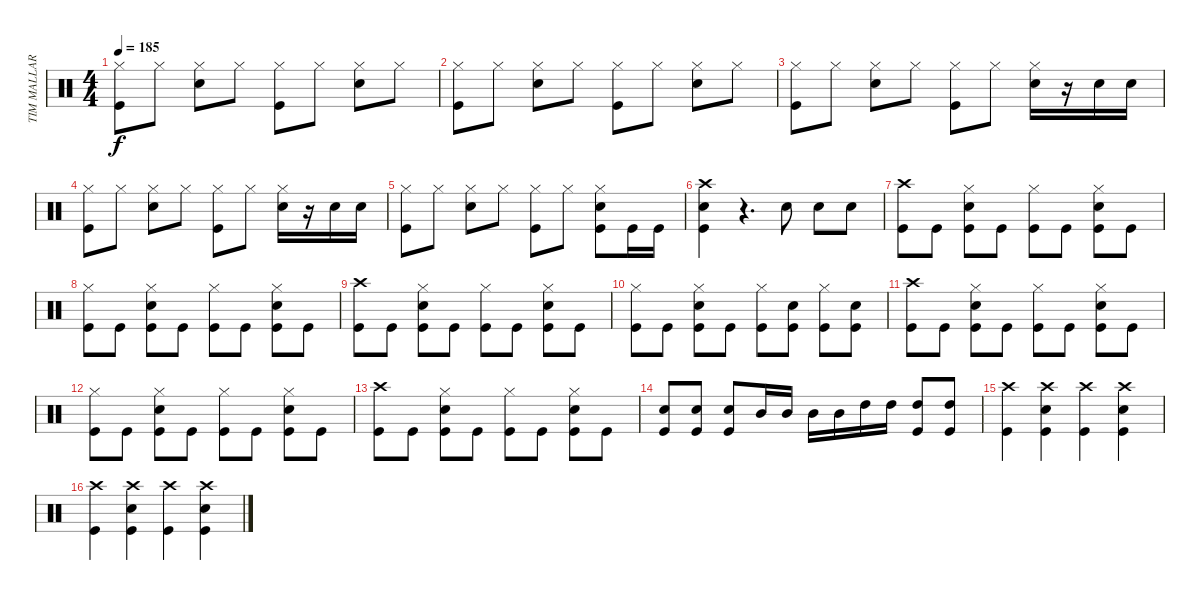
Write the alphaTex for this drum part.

\track ("TIM MALLARE - drums" "TIM MALLAR") {instrument percussion}
\staff {score}
\articulation defaults
\ts (4 4)
\tempo 185
\clef neutral
\ks c
("Hi-Hat (closed)" "Kick (hit)").8{dy f} "Hi-Hat (closed)".8 ("Hi-Hat (closed)" "Electric Snare (hit)").8 "Hi-Hat (closed)".8 ("Hi-Hat (closed)" "Kick (hit)").8 "Hi-Hat (closed)".8 ("Hi-Hat (closed)" "Electric Snare (hit)").8 "Hi-Hat (closed)".8 |
("Hi-Hat (closed)" "Kick (hit)").8 "Hi-Hat (closed)".8 ("Hi-Hat (closed)" "Electric Snare (hit)").8 "Hi-Hat (closed)".8 ("Hi-Hat (closed)" "Kick (hit)").8 "Hi-Hat (closed)".8 ("Hi-Hat (closed)" "Electric Snare (hit)").8 "Hi-Hat (closed)".8 |
("Hi-Hat (closed)" "Kick (hit)").8 "Hi-Hat (closed)".8 ("Hi-Hat (closed)" "Electric Snare (hit)").8 "Hi-Hat (closed)".8 ("Hi-Hat (closed)" "Kick (hit)").8 "Hi-Hat (closed)".8 ("Hi-Hat (closed)" "Electric Snare (hit)").16 r.16 "Electric Snare (hit)".16 "Electric Snare (hit)".16 |
("Hi-Hat (closed)" "Kick (hit)").8 "Hi-Hat (closed)".8 ("Hi-Hat (closed)" "Electric Snare (hit)").8 "Hi-Hat (closed)".8 ("Hi-Hat (closed)" "Kick (hit)").8 "Hi-Hat (closed)".8 ("Hi-Hat (closed)" "Electric Snare (hit)").16 r.16 "Electric Snare (hit)".16 "Electric Snare (hit)".16 |
("Hi-Hat (closed)" "Kick (hit)").8 "Hi-Hat (closed)".8 ("Hi-Hat (closed)" "Electric Snare (hit)").8 "Hi-Hat (closed)".8 ("Hi-Hat (closed)" "Kick (hit)").8 "Hi-Hat (closed)".8 ("Hi-Hat (closed)" "Electric Snare (hit)" "Kick (hit)").8 "Kick (hit)".16 "Kick (hit)".16 |
("Electric Snare (hit)" "Crash high (hit)" "Kick (hit)").4 r.4{d} "Electric Snare (hit)".8 "Electric Snare (hit)".8 "Electric Snare (hit)".8 |
("Crash high (hit)" "Kick (hit)").8 "Kick (hit)".8 ("Hi-Hat (closed)" "Electric Snare (hit)" "Kick (hit)").8 "Kick (hit)".8 ("Hi-Hat (closed)" "Kick (hit)").8 "Kick (hit)".8 ("Hi-Hat (closed)" "Electric Snare (hit)" "Kick (hit)").8 "Kick (hit)".8 |
("Hi-Hat (closed)" "Kick (hit)").8 "Kick (hit)".8 ("Hi-Hat (closed)" "Electric Snare (hit)" "Kick (hit)").8 "Kick (hit)".8 ("Hi-Hat (closed)" "Kick (hit)").8 "Kick (hit)".8 ("Hi-Hat (closed)" "Electric Snare (hit)" "Kick (hit)").8 "Kick (hit)".8 |
("Crash high (hit)" "Kick (hit)").8 "Kick (hit)".8 ("Hi-Hat (closed)" "Electric Snare (hit)" "Kick (hit)").8 "Kick (hit)".8 ("Hi-Hat (closed)" "Kick (hit)").8 "Kick (hit)".8 ("Hi-Hat (closed)" "Electric Snare (hit)" "Kick (hit)").8 "Kick (hit)".8 |
("Hi-Hat (closed)" "Kick (hit)").8 "Kick (hit)".8 ("Hi-Hat (closed)" "Electric Snare (hit)" "Kick (hit)").8 "Kick (hit)".8 ("Hi-Hat (closed)" "Kick (hit)").8 ("Electric Snare (hit)" "Kick (hit)").8 ("Hi-Hat (closed)" "Kick (hit)").8 ("Electric Snare (hit)" "Kick (hit)").8 |
("Crash high (hit)" "Kick (hit)").8 "Kick (hit)".8 ("Hi-Hat (closed)" "Electric Snare (hit)" "Kick (hit)").8 "Kick (hit)".8 ("Hi-Hat (closed)" "Kick (hit)").8 "Kick (hit)".8 ("Hi-Hat (closed)" "Electric Snare (hit)" "Kick (hit)").8 "Kick (hit)".8 |
("Hi-Hat (closed)" "Kick (hit)").8 "Kick (hit)".8 ("Hi-Hat (closed)" "Electric Snare (hit)" "Kick (hit)").8 "Kick (hit)".8 ("Hi-Hat (closed)" "Kick (hit)").8 "Kick (hit)".8 ("Hi-Hat (closed)" "Electric Snare (hit)" "Kick (hit)").8 "Kick (hit)".8 |
("Crash high (hit)" "Kick (hit)").8 "Kick (hit)".8 ("Hi-Hat (closed)" "Electric Snare (hit)" "Kick (hit)").8 "Kick (hit)".8 ("Hi-Hat (closed)" "Kick (hit)").8 "Kick (hit)".8 ("Hi-Hat (closed)" "Electric Snare (hit)" "Kick (hit)").8 "Kick (hit)".8 |
("Electric Snare (hit)" "Kick (hit)").8 ("Electric Snare (hit)" "Kick (hit)").8 ("Electric Snare (hit)" "Kick (hit)").8 "Mid Tom (hit)".16 "Mid Tom (hit)".16 "Mid Tom (hit)".16 "Mid Tom (hit)".16 "High Tom (hit)".16 "High Tom (hit)".16 ("High Tom (hit)" "Kick (hit)").8 ("High Tom (hit)" "Kick (hit)").8 |
("Crash high (hit)" "Kick (hit)").4 ("Crash high (hit)" "Electric Snare (hit)" "Kick (hit)").4 ("Crash high (hit)" "Kick (hit)").4 ("Crash high (hit)" "Electric Snare (hit)" "Kick (hit)").4 |
("Crash high (hit)" "Kick (hit)").4 ("Electric Snare (hit)" "Crash high (hit)" "Kick (hit)").4 ("Crash high (hit)" "Kick (hit)").4 ("Electric Snare (hit)" "Crash high (hit)" "Kick (hit)").4
